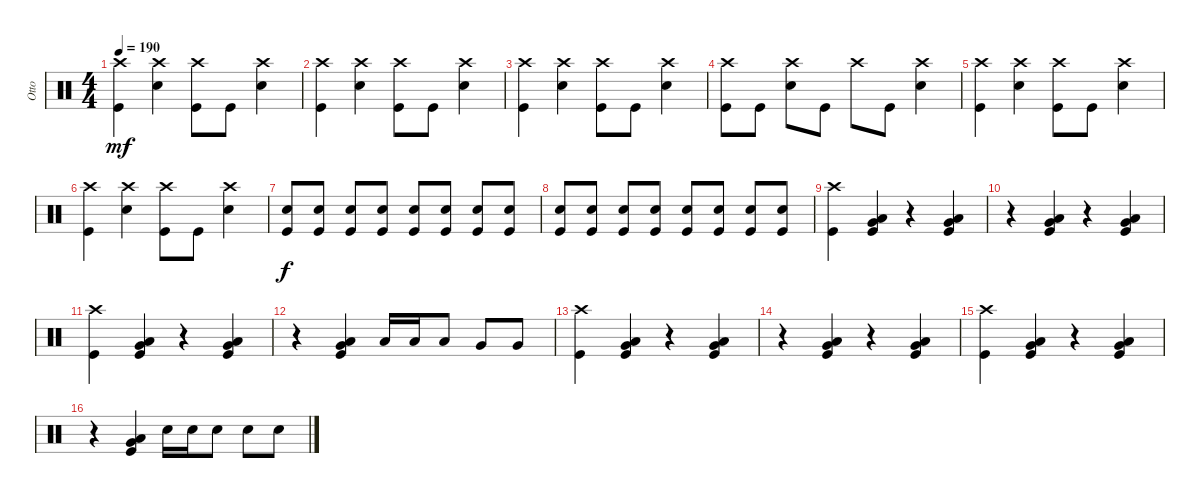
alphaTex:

\track ("Otto" "Otto") {instrument percussion}
\staff {score}
\articulation defaults
\ts (4 4)
\tempo 190
\clef neutral
\ks c
("Kick (hit)" "Crash high (hit)").4{dy mf} ("Snare (hit) 2" "Crash high (hit)").4 ("Kick (hit)" "Crash high (hit)").8 "Kick (hit)".8 ("Snare (hit) 2" "Crash high (hit)").4 |
("Kick (hit)" "Crash high (hit)").4 ("Snare (hit) 2" "Crash high (hit)").4 ("Kick (hit)" "Crash high (hit)").8 "Kick (hit)".8 ("Snare (hit) 2" "Crash high (hit)").4 |
("Kick (hit)" "Crash high (hit)").4 ("Snare (hit) 2" "Crash high (hit)").4 ("Kick (hit)" "Crash high (hit)").8 "Kick (hit)".8 ("Snare (hit) 2" "Crash high (hit)").4 |
("Kick (hit)" "Crash high (hit)").8 "Kick (hit)".8 ("Snare (hit) 2" "Crash high (hit)").8 "Kick (hit)".8 "Crash high (hit)".8 "Kick (hit)".8 ("Snare (hit) 2" "Crash high (hit)").4 |
("Kick (hit)" "Crash high (hit)").4 ("Snare (hit) 2" "Crash high (hit)").4 ("Kick (hit)" "Crash high (hit)").8 "Kick (hit)".8 ("Snare (hit) 2" "Crash high (hit)").4 |
("Kick (hit)" "Crash high (hit)").4 ("Snare (hit) 2" "Crash high (hit)").4 ("Kick (hit)" "Crash high (hit)").8 "Kick (hit)".8 ("Snare (hit) 2" "Crash high (hit)").4 |
("Snare (hit) 2" "Kick (hit)").8{dy f} ("Snare (hit) 2" "Kick (hit)").8 ("Snare (hit) 2" "Kick (hit)").8 ("Snare (hit) 2" "Kick (hit)").8 ("Snare (hit) 2" "Kick (hit)").8 ("Snare (hit) 2" "Kick (hit)").8 ("Snare (hit) 2" "Kick (hit)").8 ("Snare (hit) 2" "Kick (hit)").8 |
("Snare (hit) 2" "Kick (hit)").8 ("Snare (hit) 2" "Kick (hit)").8 ("Snare (hit) 2" "Kick (hit)").8 ("Snare (hit) 2" "Kick (hit)").8 ("Snare (hit) 2" "Kick (hit)").8 ("Snare (hit) 2" "Kick (hit)").8 ("Snare (hit) 2" "Kick (hit)").8 ("Snare (hit) 2" "Kick (hit)").8 |
("Crash high (hit)" "Kick (hit)").4 ("Very Low Tom (hit)" "Low Tom (hit)" "Kick (hit)").4 r.4 ("Very Low Tom (hit)" "Low Tom (hit)" "Kick (hit)").4 |
r.4 ("Very Low Tom (hit)" "Low Tom (hit)" "Kick (hit)").4 r.4 ("Very Low Tom (hit)" "Low Tom (hit)" "Kick (hit)").4 |
("Crash high (hit)" "Kick (hit)").4 ("Very Low Tom (hit)" "Low Tom (hit)" "Kick (hit)").4 r.4 ("Very Low Tom (hit)" "Low Tom (hit)" "Kick (hit)").4 |
r.4 ("Very Low Tom (hit)" "Low Tom (hit)" "Kick (hit)").4 "Low Tom (hit)".16 "Low Tom (hit)".16 "Low Tom (hit)".8 "Very Low Tom (hit)".8 "Very Low Tom (hit)".8 |
("Crash high (hit)" "Kick (hit)").4 ("Very Low Tom (hit)" "Low Tom (hit)" "Kick (hit)").4 r.4 ("Very Low Tom (hit)" "Low Tom (hit)" "Kick (hit)").4 |
r.4 ("Very Low Tom (hit)" "Low Tom (hit)" "Kick (hit)").4 r.4 ("Very Low Tom (hit)" "Low Tom (hit)" "Kick (hit)").4 |
("Crash high (hit)" "Kick (hit)").4 ("Very Low Tom (hit)" "Low Tom (hit)" "Kick (hit)").4 r.4 ("Very Low Tom (hit)" "Low Tom (hit)" "Kick (hit)").4 |
r.4 ("Very Low Tom (hit)" "Low Tom (hit)" "Kick (hit)").4 "Snare (hit) 2".16 "Snare (hit) 2".16 "Snare (hit) 2".8 "Snare (hit) 2".8 "Snare (hit) 2".8
